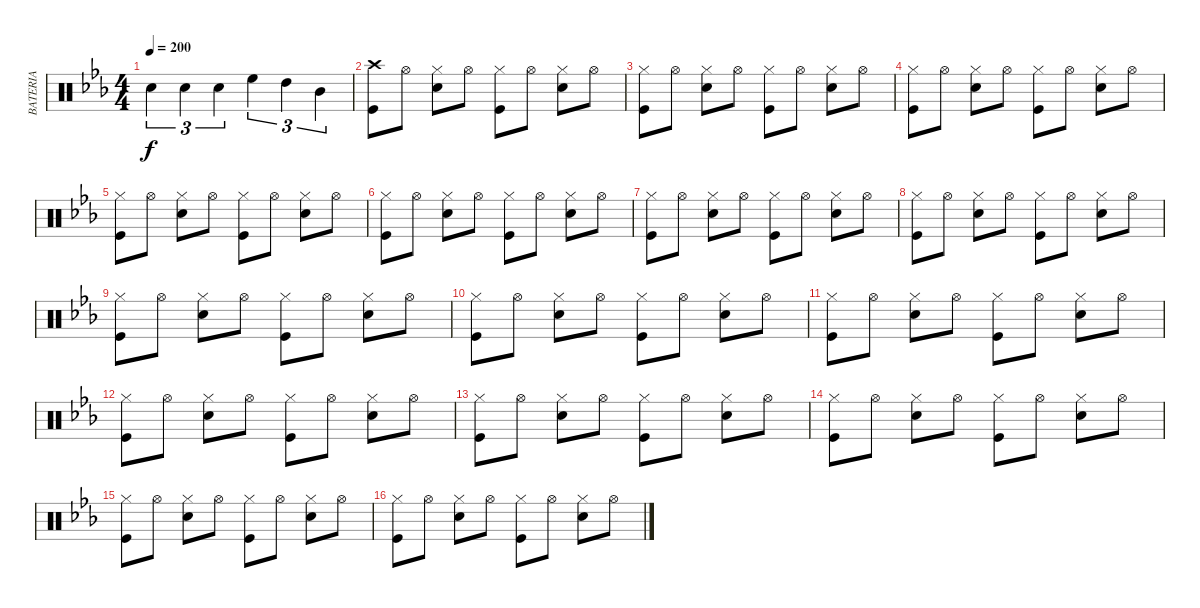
\track ("BATERIA" "BATERIA") {instrument percussion}
\staff {score}
\articulation defaults
\ts (4 4)
\tempo 200
\clef neutral
\ks cminor "Snare (hit) 2".4{tu (3 2) dy f} "Snare (hit) 2".4{tu (3 2)} "Snare (hit) 2".4{tu (3 2)} "High Floor Tom (hit)".4{tu (3 2)} "High Tom (hit)".4{tu (3 2)} "Mid Tom (hit)".4{tu (3 2)}
|
("Kick (hit)" "Crash high (hit)").8 "Hi-Hat (open)".8 ("Hi-Hat (closed)" "Snare (hit) 2").8 "Hi-Hat (open)".8 ("Kick (hit)" "Hi-Hat (closed)").8 "Hi-Hat (open)".8 ("Hi-Hat (closed)" "Snare (hit) 2").8 "Hi-Hat (open)".8 |
("Kick (hit)" "Hi-Hat (closed)").8 "Hi-Hat (open)".8 ("Hi-Hat (closed)" "Snare (hit) 2").8 "Hi-Hat (open)".8 ("Kick (hit)" "Hi-Hat (closed)").8 "Hi-Hat (open)".8 ("Hi-Hat (closed)" "Snare (hit) 2").8 "Hi-Hat (open)".8 |
("Kick (hit)" "Hi-Hat (closed)").8 "Hi-Hat (open)".8 ("Hi-Hat (closed)" "Snare (hit) 2").8 "Hi-Hat (open)".8 ("Kick (hit)" "Hi-Hat (closed)").8 "Hi-Hat (open)".8 ("Hi-Hat (closed)" "Snare (hit) 2").8 "Hi-Hat (open)".8 |
("Kick (hit)" "Hi-Hat (closed)").8 "Hi-Hat (open)".8 ("Hi-Hat (closed)" "Snare (hit) 2").8 "Hi-Hat (open)".8 ("Kick (hit)" "Hi-Hat (closed)").8 "Hi-Hat (open)".8 ("Hi-Hat (closed)" "Snare (hit) 2").8 "Hi-Hat (open)".8 |
("Kick (hit)" "Hi-Hat (closed)").8 "Hi-Hat (open)".8 ("Hi-Hat (closed)" "Snare (hit) 2").8 "Hi-Hat (open)".8 ("Kick (hit)" "Hi-Hat (closed)").8 "Hi-Hat (open)".8 ("Hi-Hat (closed)" "Snare (hit) 2").8 "Hi-Hat (open)".8 |
("Kick (hit)" "Hi-Hat (closed)").8 "Hi-Hat (open)".8 ("Hi-Hat (closed)" "Snare (hit) 2").8 "Hi-Hat (open)".8 ("Kick (hit)" "Hi-Hat (closed)").8 "Hi-Hat (open)".8 ("Hi-Hat (closed)" "Snare (hit) 2").8 "Hi-Hat (open)".8 |
("Kick (hit)" "Hi-Hat (closed)").8 "Hi-Hat (open)".8 ("Hi-Hat (closed)" "Snare (hit) 2").8 "Hi-Hat (open)".8 ("Kick (hit)" "Hi-Hat (closed)").8 "Hi-Hat (open)".8 ("Hi-Hat (closed)" "Snare (hit) 2").8 "Hi-Hat (open)".8 |
("Kick (hit)" "Hi-Hat (closed)").8 "Hi-Hat (open)".8 ("Hi-Hat (closed)" "Snare (hit) 2").8 "Hi-Hat (open)".8 ("Kick (hit)" "Hi-Hat (closed)").8 "Hi-Hat (open)".8 ("Hi-Hat (closed)" "Snare (hit) 2").8 "Hi-Hat (open)".8 |
("Kick (hit)" "Hi-Hat (closed)").8 "Hi-Hat (open)".8 ("Hi-Hat (closed)" "Snare (hit) 2").8 "Hi-Hat (open)".8 ("Kick (hit)" "Hi-Hat (closed)").8 "Hi-Hat (open)".8 ("Hi-Hat (closed)" "Snare (hit) 2").8 "Hi-Hat (open)".8 |
("Kick (hit)" "Hi-Hat (closed)").8 "Hi-Hat (open)".8 ("Hi-Hat (closed)" "Snare (hit) 2").8 "Hi-Hat (open)".8 ("Kick (hit)" "Hi-Hat (closed)").8 "Hi-Hat (open)".8 ("Hi-Hat (closed)" "Snare (hit) 2").8 "Hi-Hat (open)".8 |
("Kick (hit)" "Hi-Hat (closed)").8 "Hi-Hat (open)".8 ("Hi-Hat (closed)" "Snare (hit) 2").8 "Hi-Hat (open)".8 ("Kick (hit)" "Hi-Hat (closed)").8 "Hi-Hat (open)".8 ("Hi-Hat (closed)" "Snare (hit) 2").8 "Hi-Hat (open)".8 |
("Kick (hit)" "Hi-Hat (closed)").8 "Hi-Hat (open)".8 ("Hi-Hat (closed)" "Snare (hit) 2").8 "Hi-Hat (open)".8 ("Kick (hit)" "Hi-Hat (closed)").8 "Hi-Hat (open)".8 ("Hi-Hat (closed)" "Snare (hit) 2").8 "Hi-Hat (open)".8 |
("Kick (hit)" "Hi-Hat (closed)").8 "Hi-Hat (open)".8 ("Hi-Hat (closed)" "Snare (hit) 2").8 "Hi-Hat (open)".8 ("Kick (hit)" "Hi-Hat (closed)").8 "Hi-Hat (open)".8 ("Hi-Hat (closed)" "Snare (hit) 2").8 "Hi-Hat (open)".8 |
("Kick (hit)" "Hi-Hat (closed)").8 "Hi-Hat (open)".8 ("Hi-Hat (closed)" "Snare (hit) 2").8 "Hi-Hat (open)".8 ("Kick (hit)" "Hi-Hat (closed)").8 "Hi-Hat (open)".8 ("Hi-Hat (closed)" "Snare (hit) 2").8 "Hi-Hat (open)".8 |
("Kick (hit)" "Hi-Hat (closed)").8 "Hi-Hat (open)".8 ("Hi-Hat (closed)" "Snare (hit) 2").8 "Hi-Hat (open)".8 ("Kick (hit)" "Hi-Hat (closed)").8 "Hi-Hat (open)".8 ("Hi-Hat (closed)" "Snare (hit) 2").8 "Hi-Hat (open)".8
